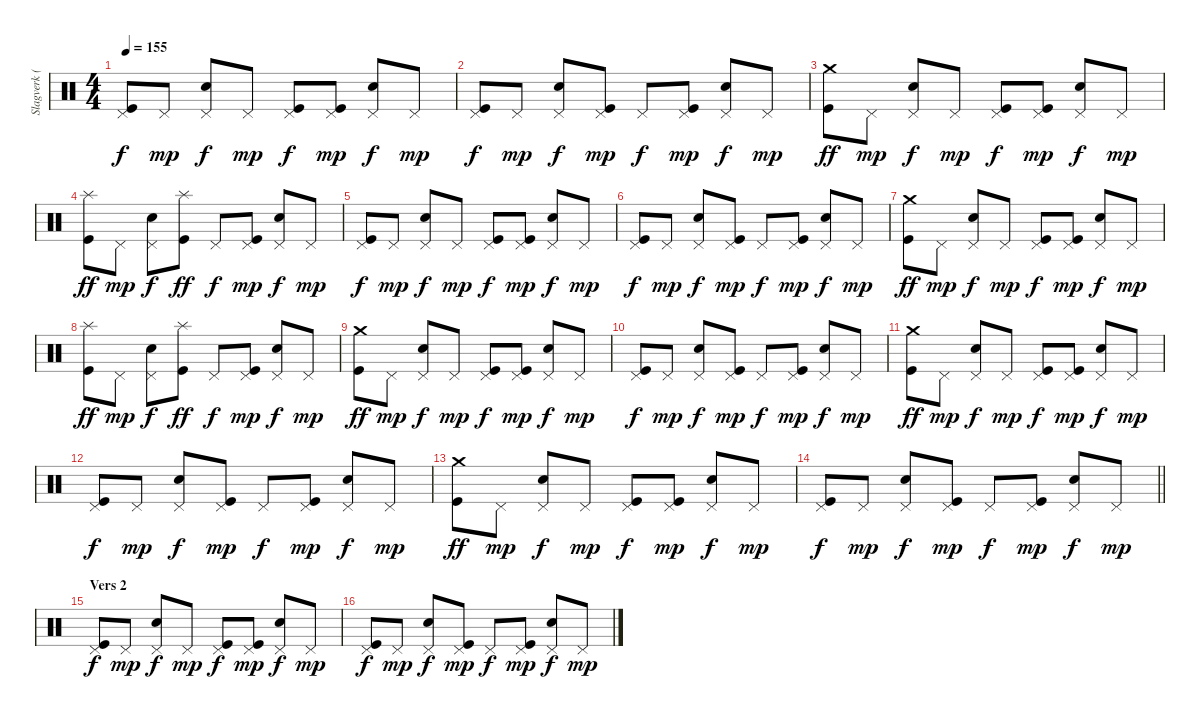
\track ("Slagverk (Jan)" "Slagverk (") {instrument percussion}
\staff {score}
\articulation defaults
\ts (4 4)
\tempo 155
\clef neutral
\ks c
("Kick (hit)" "Pedal Hi-Hat (hit)").8{dy f} "Pedal Hi-Hat (hit)".8{dy mp} ("Snare (hit) 2" "Pedal Hi-Hat (hit)").8{dy f} "Pedal Hi-Hat (hit)".8{dy mp} ("Kick (hit)" "Pedal Hi-Hat (hit)").8{dy f} ("Kick (hit)" "Pedal Hi-Hat (hit)").8{dy mp} ("Snare (hit) 2" "Pedal Hi-Hat (hit)").8{dy f} "Pedal Hi-Hat (hit)".8{dy mp} |
("Kick (hit)" "Pedal Hi-Hat (hit)").8{dy f} "Pedal Hi-Hat (hit)".8{dy mp} ("Snare (hit) 2" "Pedal Hi-Hat (hit)").8{dy f} ("Kick (hit)" "Pedal Hi-Hat (hit)").8{dy mp} "Pedal Hi-Hat (hit)".8{dy f} ("Kick (hit)" "Pedal Hi-Hat (hit)").8{dy mp} ("Snare (hit) 2" "Pedal Hi-Hat (hit)").8{dy f} "Pedal Hi-Hat (hit)".8{dy mp} |
("Kick (hit)" "Crash medium (hit)").8{dy ff} "Pedal Hi-Hat (hit)".8{dy mp} ("Snare (hit) 2" "Pedal Hi-Hat (hit)").8{dy f} "Pedal Hi-Hat (hit)".8{dy mp} ("Kick (hit)" "Pedal Hi-Hat (hit)").8{dy f} ("Kick (hit)" "Pedal Hi-Hat (hit)").8{dy mp} ("Snare (hit) 2" "Pedal Hi-Hat (hit)").8{dy f} "Pedal Hi-Hat (hit)".8{dy mp} |
("Kick (hit)" "Splash (hit)").8{dy ff} "Pedal Hi-Hat (hit)".8{dy mp} ("Snare (hit) 2" "Pedal Hi-Hat (hit)").8{dy f} ("Kick (hit)" "Splash (hit)").8{dy ff} "Pedal Hi-Hat (hit)".8{dy f} ("Kick (hit)" "Pedal Hi-Hat (hit)").8{dy mp} ("Snare (hit) 2" "Pedal Hi-Hat (hit)").8{dy f} "Pedal Hi-Hat (hit)".8{dy mp} |
("Kick (hit)" "Pedal Hi-Hat (hit)").8{dy f} "Pedal Hi-Hat (hit)".8{dy mp} ("Snare (hit) 2" "Pedal Hi-Hat (hit)").8{dy f} "Pedal Hi-Hat (hit)".8{dy mp} ("Kick (hit)" "Pedal Hi-Hat (hit)").8{dy f} ("Kick (hit)" "Pedal Hi-Hat (hit)").8{dy mp} ("Snare (hit) 2" "Pedal Hi-Hat (hit)").8{dy f} "Pedal Hi-Hat (hit)".8{dy mp} |
("Kick (hit)" "Pedal Hi-Hat (hit)").8{dy f} "Pedal Hi-Hat (hit)".8{dy mp} ("Snare (hit) 2" "Pedal Hi-Hat (hit)").8{dy f} ("Kick (hit)" "Pedal Hi-Hat (hit)").8{dy mp} "Pedal Hi-Hat (hit)".8{dy f} ("Kick (hit)" "Pedal Hi-Hat (hit)").8{dy mp} ("Snare (hit) 2" "Pedal Hi-Hat (hit)").8{dy f} "Pedal Hi-Hat (hit)".8{dy mp} |
("Kick (hit)" "Crash medium (hit)").8{dy ff} "Pedal Hi-Hat (hit)".8{dy mp} ("Snare (hit) 2" "Pedal Hi-Hat (hit)").8{dy f} "Pedal Hi-Hat (hit)".8{dy mp} ("Kick (hit)" "Pedal Hi-Hat (hit)").8{dy f} ("Kick (hit)" "Pedal Hi-Hat (hit)").8{dy mp} ("Snare (hit) 2" "Pedal Hi-Hat (hit)").8{dy f} "Pedal Hi-Hat (hit)".8{dy mp} |
("Kick (hit)" "Splash (hit)").8{dy ff} "Pedal Hi-Hat (hit)".8{dy mp} ("Snare (hit) 2" "Pedal Hi-Hat (hit)").8{dy f} ("Kick (hit)" "Splash (hit)").8{dy ff} "Pedal Hi-Hat (hit)".8{dy f} ("Kick (hit)" "Pedal Hi-Hat (hit)").8{dy mp} ("Snare (hit) 2" "Pedal Hi-Hat (hit)").8{dy f} "Pedal Hi-Hat (hit)".8{dy mp} |
("Kick (hit)" "Crash medium (hit)").8{dy ff} "Pedal Hi-Hat (hit)".8{dy mp} ("Snare (hit) 2" "Pedal Hi-Hat (hit)").8{dy f} "Pedal Hi-Hat (hit)".8{dy mp} ("Kick (hit)" "Pedal Hi-Hat (hit)").8{dy f} ("Kick (hit)" "Pedal Hi-Hat (hit)").8{dy mp} ("Snare (hit) 2" "Pedal Hi-Hat (hit)").8{dy f} "Pedal Hi-Hat (hit)".8{dy mp} |
("Kick (hit)" "Pedal Hi-Hat (hit)").8{dy f} "Pedal Hi-Hat (hit)".8{dy mp} ("Snare (hit) 2" "Pedal Hi-Hat (hit)").8{dy f} ("Kick (hit)" "Pedal Hi-Hat (hit)").8{dy mp} "Pedal Hi-Hat (hit)".8{dy f} ("Kick (hit)" "Pedal Hi-Hat (hit)").8{dy mp} ("Snare (hit) 2" "Pedal Hi-Hat (hit)").8{dy f} "Pedal Hi-Hat (hit)".8{dy mp} |
("Kick (hit)" "Crash medium (hit)").8{dy ff} "Pedal Hi-Hat (hit)".8{dy mp} ("Snare (hit) 2" "Pedal Hi-Hat (hit)").8{dy f} "Pedal Hi-Hat (hit)".8{dy mp} ("Kick (hit)" "Pedal Hi-Hat (hit)").8{dy f} ("Kick (hit)" "Pedal Hi-Hat (hit)").8{dy mp} ("Snare (hit) 2" "Pedal Hi-Hat (hit)").8{dy f} "Pedal Hi-Hat (hit)".8{dy mp} |
("Kick (hit)" "Pedal Hi-Hat (hit)").8{dy f} "Pedal Hi-Hat (hit)".8{dy mp} ("Snare (hit) 2" "Pedal Hi-Hat (hit)").8{dy f} ("Kick (hit)" "Pedal Hi-Hat (hit)").8{dy mp} "Pedal Hi-Hat (hit)".8{dy f} ("Kick (hit)" "Pedal Hi-Hat (hit)").8{dy mp} ("Snare (hit) 2" "Pedal Hi-Hat (hit)").8{dy f} "Pedal Hi-Hat (hit)".8{dy mp} |
("Kick (hit)" "Crash medium (hit)").8{dy ff} "Pedal Hi-Hat (hit)".8{dy mp} ("Snare (hit) 2" "Pedal Hi-Hat (hit)").8{dy f} "Pedal Hi-Hat (hit)".8{dy mp} ("Kick (hit)" "Pedal Hi-Hat (hit)").8{dy f} ("Kick (hit)" "Pedal Hi-Hat (hit)").8{dy mp} ("Snare (hit) 2" "Pedal Hi-Hat (hit)").8{dy f} "Pedal Hi-Hat (hit)".8{dy mp} |
\barLineRight lightlight
("Kick (hit)" "Pedal Hi-Hat (hit)").8{dy f} "Pedal Hi-Hat (hit)".8{dy mp} ("Snare (hit) 2" "Pedal Hi-Hat (hit)").8{dy f} ("Kick (hit)" "Pedal Hi-Hat (hit)").8{dy mp} "Pedal Hi-Hat (hit)".8{dy f} ("Kick (hit)" "Pedal Hi-Hat (hit)").8{dy mp} ("Snare (hit) 2" "Pedal Hi-Hat (hit)").8{dy f} "Pedal Hi-Hat (hit)".8{dy mp} |
\section ("" "Vers 2")
("Kick (hit)" "Pedal Hi-Hat (hit)").8{dy f} "Pedal Hi-Hat (hit)".8{dy mp} ("Snare (hit) 2" "Pedal Hi-Hat (hit)").8{dy f} "Pedal Hi-Hat (hit)".8{dy mp} ("Kick (hit)" "Pedal Hi-Hat (hit)").8{dy f} ("Kick (hit)" "Pedal Hi-Hat (hit)").8{dy mp} ("Snare (hit) 2" "Pedal Hi-Hat (hit)").8{dy f} "Pedal Hi-Hat (hit)".8{dy mp} |
("Kick (hit)" "Pedal Hi-Hat (hit)").8{dy f} "Pedal Hi-Hat (hit)".8{dy mp} ("Snare (hit) 2" "Pedal Hi-Hat (hit)").8{dy f} ("Kick (hit)" "Pedal Hi-Hat (hit)").8{dy mp} "Pedal Hi-Hat (hit)".8{dy f} ("Kick (hit)" "Pedal Hi-Hat (hit)").8{dy mp} ("Snare (hit) 2" "Pedal Hi-Hat (hit)").8{dy f} "Pedal Hi-Hat (hit)".8{dy mp}
